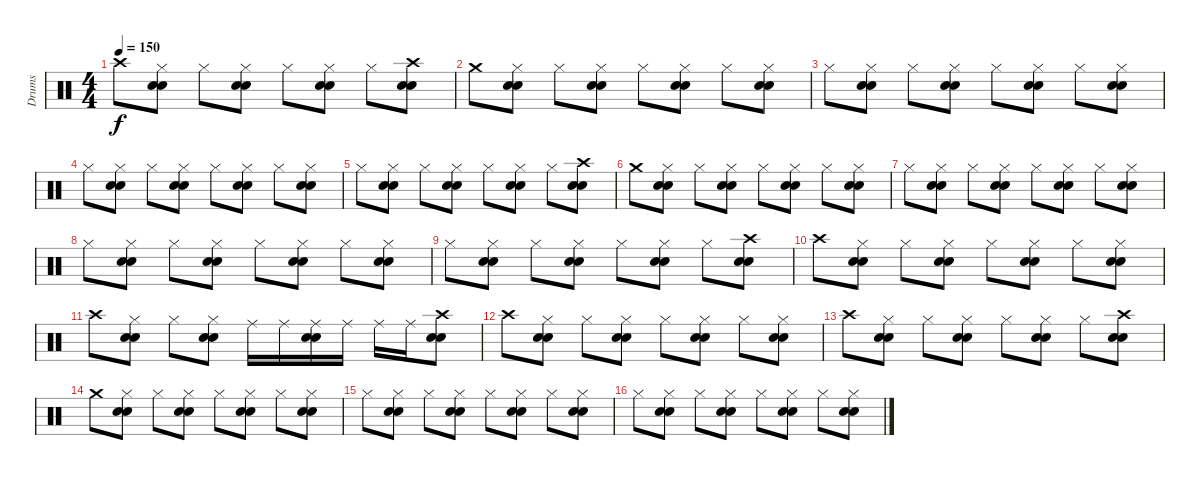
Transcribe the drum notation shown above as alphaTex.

\track ("Drums" "Drums") {instrument percussion}
\staff {score}
\articulation defaults
\ts (4 4)
\tempo 150
\clef neutral
\ks c "Crash high (hit)".8{dy f}
("Hi-Hat (closed)" "Electric Snare (hit)" "Snare (hit) 2").8 "Hi-Hat (closed)".8 ("Hi-Hat (closed)" "Electric Snare (hit)" "Snare (hit) 2").8 "Hi-Hat (closed)".8 ("Hi-Hat (closed)" "Electric Snare (hit)" "Snare (hit) 2").8 "Hi-Hat (closed)".8 ("Crash high (hit)" "Electric Snare (hit)" "Snare (hit) 2").8 |
"Crash medium (hit)".8 ("Hi-Hat (closed)" "Electric Snare (hit)" "Snare (hit) 2").8 "Hi-Hat (closed)".8 ("Hi-Hat (closed)" "Electric Snare (hit)" "Snare (hit) 2").8 "Hi-Hat (closed)".8 ("Hi-Hat (closed)" "Electric Snare (hit)" "Snare (hit) 2").8 "Hi-Hat (closed)".8 ("Hi-Hat (closed)" "Electric Snare (hit)" "Snare (hit) 2").8 |
"Hi-Hat (closed)".8 ("Hi-Hat (closed)" "Electric Snare (hit)" "Snare (hit) 2").8 "Hi-Hat (closed)".8 ("Hi-Hat (closed)" "Electric Snare (hit)" "Snare (hit) 2").8 "Hi-Hat (closed)".8 ("Hi-Hat (closed)" "Electric Snare (hit)" "Snare (hit) 2").8 "Hi-Hat (closed)".8 ("Hi-Hat (closed)" "Electric Snare (hit)" "Snare (hit) 2").8 |
"Hi-Hat (closed)".8 ("Hi-Hat (closed)" "Electric Snare (hit)" "Snare (hit) 2").8 "Hi-Hat (closed)".8 ("Hi-Hat (closed)" "Electric Snare (hit)" "Snare (hit) 2").8 "Hi-Hat (closed)".8 ("Hi-Hat (closed)" "Electric Snare (hit)" "Snare (hit) 2").8 "Hi-Hat (closed)".8 ("Hi-Hat (closed)" "Electric Snare (hit)" "Snare (hit) 2").8 |
"Hi-Hat (closed)".8 ("Hi-Hat (closed)" "Electric Snare (hit)" "Snare (hit) 2").8 "Hi-Hat (closed)".8 ("Hi-Hat (closed)" "Electric Snare (hit)" "Snare (hit) 2").8 "Hi-Hat (closed)".8 ("Hi-Hat (closed)" "Electric Snare (hit)" "Snare (hit) 2").8 "Hi-Hat (closed)".8 ("Crash high (hit)" "Electric Snare (hit)" "Snare (hit) 2").8 |
"Crash medium (hit)".8 ("Hi-Hat (closed)" "Electric Snare (hit)" "Snare (hit) 2").8 "Hi-Hat (closed)".8 ("Hi-Hat (closed)" "Electric Snare (hit)" "Snare (hit) 2").8 "Hi-Hat (closed)".8 ("Hi-Hat (closed)" "Electric Snare (hit)" "Snare (hit) 2").8 "Hi-Hat (closed)".8 ("Hi-Hat (closed)" "Electric Snare (hit)" "Snare (hit) 2").8 |
"Hi-Hat (closed)".8 ("Hi-Hat (closed)" "Electric Snare (hit)" "Snare (hit) 2").8 "Hi-Hat (closed)".8 ("Hi-Hat (closed)" "Electric Snare (hit)" "Snare (hit) 2").8 "Hi-Hat (closed)".8 ("Hi-Hat (closed)" "Electric Snare (hit)" "Snare (hit) 2").8 "Hi-Hat (closed)".8 ("Hi-Hat (closed)" "Electric Snare (hit)" "Snare (hit) 2").8 |
"Hi-Hat (closed)".8 ("Hi-Hat (closed)" "Electric Snare (hit)" "Snare (hit) 2").8 "Hi-Hat (closed)".8 ("Hi-Hat (closed)" "Electric Snare (hit)" "Snare (hit) 2").8 "Hi-Hat (closed)".8 ("Hi-Hat (closed)" "Electric Snare (hit)" "Snare (hit) 2").8 "Hi-Hat (closed)".8 ("Hi-Hat (closed)" "Electric Snare (hit)" "Snare (hit) 2").8 |
"Hi-Hat (closed)".8 ("Hi-Hat (closed)" "Electric Snare (hit)" "Snare (hit) 2").8 "Hi-Hat (closed)".8 ("Hi-Hat (closed)" "Electric Snare (hit)" "Snare (hit) 2").8 "Hi-Hat (closed)".8 ("Hi-Hat (closed)" "Electric Snare (hit)" "Snare (hit) 2").8 "Hi-Hat (closed)".8 ("Crash high (hit)" "Electric Snare (hit)" "Snare (hit) 2").8 |
"Crash high (hit)".8 ("Hi-Hat (closed)" "Electric Snare (hit)" "Snare (hit) 2").8 "Hi-Hat (closed)".8 ("Hi-Hat (closed)" "Electric Snare (hit)" "Snare (hit) 2").8 "Hi-Hat (closed)".8 ("Hi-Hat (closed)" "Electric Snare (hit)" "Snare (hit) 2").8 "Hi-Hat (closed)".8 ("Hi-Hat (closed)" "Electric Snare (hit)" "Snare (hit) 2").8 |
"Crash high (hit)".8 ("Hi-Hat (closed)" "Electric Snare (hit)" "Snare (hit) 2").8 "Hi-Hat (closed)".8 ("Hi-Hat (closed)" "Electric Snare (hit)" "Snare (hit) 2").8 "Ride (middle)".16 "Ride (middle)".16 ("Ride (middle)" "Electric Snare (hit)" "Snare (hit) 2").16 "Ride (middle)".16 "Ride (middle)".16 "Ride (middle)".16 ("Crash high (hit)" "Electric Snare (hit)" "Snare (hit) 2").8 |
"Crash high (hit)".8 ("Hi-Hat (closed)" "Electric Snare (hit)" "Snare (hit) 2").8 "Hi-Hat (closed)".8 ("Hi-Hat (closed)" "Electric Snare (hit)" "Snare (hit) 2").8 "Hi-Hat (closed)".8 ("Hi-Hat (closed)" "Electric Snare (hit)" "Snare (hit) 2").8 "Hi-Hat (closed)".8 ("Hi-Hat (closed)" "Electric Snare (hit)" "Snare (hit) 2").8 |
"Crash high (hit)".8 ("Hi-Hat (closed)" "Electric Snare (hit)" "Snare (hit) 2").8 "Hi-Hat (closed)".8 ("Hi-Hat (closed)" "Electric Snare (hit)" "Snare (hit) 2").8 "Hi-Hat (closed)".8 ("Hi-Hat (closed)" "Electric Snare (hit)" "Snare (hit) 2").8 "Hi-Hat (closed)".8 ("Crash high (hit)" "Electric Snare (hit)" "Snare (hit) 2").8 |
"Crash medium (hit)".8 ("Hi-Hat (closed)" "Electric Snare (hit)" "Snare (hit) 2").8 "Hi-Hat (closed)".8 ("Hi-Hat (closed)" "Electric Snare (hit)" "Snare (hit) 2").8 "Hi-Hat (closed)".8 ("Hi-Hat (closed)" "Electric Snare (hit)" "Snare (hit) 2").8 "Hi-Hat (closed)".8 ("Hi-Hat (closed)" "Electric Snare (hit)" "Snare (hit) 2").8 |
"Hi-Hat (closed)".8 ("Hi-Hat (closed)" "Electric Snare (hit)" "Snare (hit) 2").8 "Hi-Hat (closed)".8 ("Hi-Hat (closed)" "Electric Snare (hit)" "Snare (hit) 2").8 "Hi-Hat (closed)".8 ("Hi-Hat (closed)" "Electric Snare (hit)" "Snare (hit) 2").8 "Hi-Hat (closed)".8 ("Hi-Hat (closed)" "Electric Snare (hit)" "Snare (hit) 2").8 |
"Hi-Hat (closed)".8 ("Hi-Hat (closed)" "Electric Snare (hit)" "Snare (hit) 2").8 "Hi-Hat (closed)".8 ("Hi-Hat (closed)" "Electric Snare (hit)" "Snare (hit) 2").8 "Hi-Hat (closed)".8 ("Hi-Hat (closed)" "Electric Snare (hit)" "Snare (hit) 2").8 "Hi-Hat (closed)".8 ("Hi-Hat (closed)" "Electric Snare (hit)" "Snare (hit) 2").8
